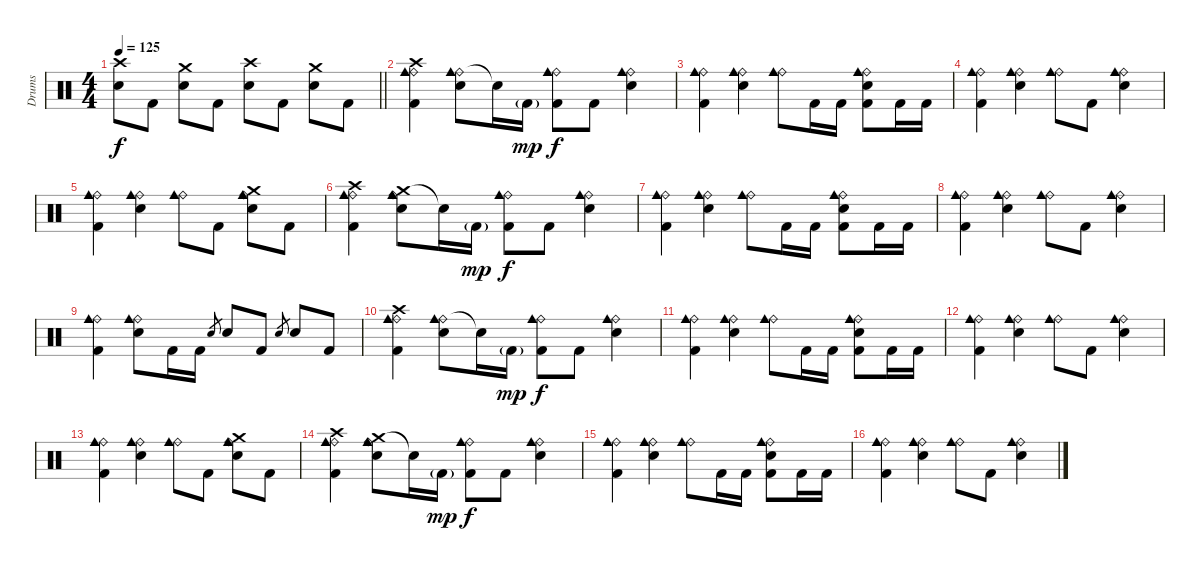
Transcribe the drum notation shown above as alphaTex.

\track ("Drums" "Drums") {instrument percussion}
\staff {score}
\articulation defaults
\ts (4 4)
\tempo 125
\clef neutral
\barLineRight lightlight
\ks c
("Crash high (hit)" "Electric Snare (hit)").8{dy f} "Kick (hit) 2".8 ("Crash medium (hit)" "Electric Snare (hit)").8 "Kick (hit) 2".8 ("Crash high (hit)" "Electric Snare (hit)").8 "Kick (hit) 2".8 ("Crash medium (hit)" "Electric Snare (hit)").8 "Kick (hit) 2".8 |
("Crash high (hit)" "Ride (bell)" "Cowbell medium (hit)" "Kick (hit) 2").4 ("Ride (bell)" "Cowbell medium (hit)" "Electric Snare (hit)").8 "Snare (hit)"{t}.16 "Kick (hit) 2"{g}.16{dy mp} ("Ride (bell)" "Cowbell medium (hit)" "Kick (hit) 2").8{dy f} "Kick (hit) 2".8 ("Ride (bell)" "Cowbell medium (hit)" "Electric Snare (hit)").4 |
("Ride (bell)" "Cowbell medium (hit)" "Kick (hit) 2").4 ("Ride (bell)" "Cowbell medium (hit)" "Electric Snare (hit)").4 ("Ride (bell)" "Cowbell medium (hit)").8 "Kick (hit) 2".16 "Kick (hit) 2".16 ("Ride (bell)" "Cowbell medium (hit)" "Electric Snare (hit)" "Kick (hit) 2").8 "Kick (hit) 2".16 "Kick (hit) 2".16 |
("Ride (bell)" "Cowbell medium (hit)" "Kick (hit) 2").4 ("Ride (bell)" "Cowbell medium (hit)" "Electric Snare (hit)").4 ("Ride (bell)" "Cowbell medium (hit)").8 "Kick (hit) 2".8 ("Ride (bell)" "Cowbell medium (hit)" "Electric Snare (hit)").4 |
("Ride (bell)" "Cowbell medium (hit)" "Kick (hit) 2").4 ("Ride (bell)" "Cowbell medium (hit)" "Electric Snare (hit)").4 ("Ride (bell)" "Cowbell medium (hit)").8 "Kick (hit) 2".8 ("Crash medium (hit)" "Ride (bell)" "Cowbell medium (hit)" "Electric Snare (hit)").8 "Kick (hit) 2".8 |
("Crash high (hit)" "Ride (bell)" "Cowbell medium (hit)" "Kick (hit) 2").4 ("Crash medium (hit)" "Ride (bell)" "Cowbell medium (hit)" "Electric Snare (hit)").8 "Snare (hit)"{t}.16 "Kick (hit) 2"{g}.16{dy mp} ("Ride (bell)" "Cowbell medium (hit)" "Kick (hit) 2").8{dy f} "Kick (hit) 2".8 ("Ride (bell)" "Cowbell medium (hit)" "Electric Snare (hit)").4 |
("Ride (bell)" "Cowbell medium (hit)" "Kick (hit) 2").4 ("Ride (bell)" "Cowbell medium (hit)" "Electric Snare (hit)").4 ("Ride (bell)" "Cowbell medium (hit)").8 "Kick (hit) 2".16 "Kick (hit) 2".16 ("Ride (bell)" "Cowbell medium (hit)" "Electric Snare (hit)" "Kick (hit) 2").8 "Kick (hit) 2".16 "Kick (hit) 2".16 |
("Ride (bell)" "Cowbell medium (hit)" "Kick (hit) 2").4 ("Ride (bell)" "Cowbell medium (hit)" "Electric Snare (hit)").4 ("Ride (bell)" "Cowbell medium (hit)").8 "Kick (hit) 2".8 ("Ride (bell)" "Cowbell medium (hit)" "Electric Snare (hit)").4 |
("Ride (bell)" "Cowbell medium (hit)" "Kick (hit) 2").4 ("Ride (bell)" "Cowbell medium (hit)" "Electric Snare (hit)").8 "Kick (hit) 2".16 "Kick (hit) 2".16 "Electric Snare (hit)".8{gr} "Electric Snare (hit)".8 "Kick (hit) 2".8 "Electric Snare (hit)".8{gr} "Electric Snare (hit)".8 "Kick (hit) 2".8 |
("Crash high (hit)" "Ride (bell)" "Cowbell medium (hit)" "Kick (hit) 2").4 ("Ride (bell)" "Cowbell medium (hit)" "Electric Snare (hit)").8 "Snare (hit)"{t}.16 "Kick (hit) 2"{g}.16{dy mp} ("Ride (bell)" "Cowbell medium (hit)" "Kick (hit) 2").8{dy f} "Kick (hit) 2".8 ("Ride (bell)" "Cowbell medium (hit)" "Electric Snare (hit)").4 |
("Ride (bell)" "Cowbell medium (hit)" "Kick (hit) 2").4 ("Ride (bell)" "Cowbell medium (hit)" "Electric Snare (hit)").4 ("Ride (bell)" "Cowbell medium (hit)").8 "Kick (hit) 2".16 "Kick (hit) 2".16 ("Ride (bell)" "Cowbell medium (hit)" "Electric Snare (hit)" "Kick (hit) 2").8 "Kick (hit) 2".16 "Kick (hit) 2".16 |
("Ride (bell)" "Cowbell medium (hit)" "Kick (hit) 2").4 ("Ride (bell)" "Cowbell medium (hit)" "Electric Snare (hit)").4 ("Ride (bell)" "Cowbell medium (hit)").8 "Kick (hit) 2".8 ("Ride (bell)" "Cowbell medium (hit)" "Electric Snare (hit)").4 |
("Ride (bell)" "Cowbell medium (hit)" "Kick (hit) 2").4 ("Ride (bell)" "Cowbell medium (hit)" "Electric Snare (hit)").4 ("Ride (bell)" "Cowbell medium (hit)").8 "Kick (hit) 2".8 ("Crash medium (hit)" "Ride (bell)" "Cowbell medium (hit)" "Electric Snare (hit)").8 "Kick (hit) 2".8 |
("Crash high (hit)" "Ride (bell)" "Cowbell medium (hit)" "Kick (hit) 2").4 ("Crash medium (hit)" "Ride (bell)" "Cowbell medium (hit)" "Electric Snare (hit)").8 "Snare (hit)"{t}.16 "Kick (hit) 2"{g}.16{dy mp} ("Ride (bell)" "Cowbell medium (hit)" "Kick (hit) 2").8{dy f} "Kick (hit) 2".8 ("Ride (bell)" "Cowbell medium (hit)" "Electric Snare (hit)").4 |
("Ride (bell)" "Cowbell medium (hit)" "Kick (hit) 2").4 ("Ride (bell)" "Cowbell medium (hit)" "Electric Snare (hit)").4 ("Ride (bell)" "Cowbell medium (hit)").8 "Kick (hit) 2".16 "Kick (hit) 2".16 ("Ride (bell)" "Cowbell medium (hit)" "Electric Snare (hit)" "Kick (hit) 2").8 "Kick (hit) 2".16 "Kick (hit) 2".16 |
("Ride (bell)" "Cowbell medium (hit)" "Kick (hit) 2").4 ("Ride (bell)" "Cowbell medium (hit)" "Electric Snare (hit)").4 ("Ride (bell)" "Cowbell medium (hit)").8 "Kick (hit) 2".8 ("Ride (bell)" "Cowbell medium (hit)" "Electric Snare (hit)").4
